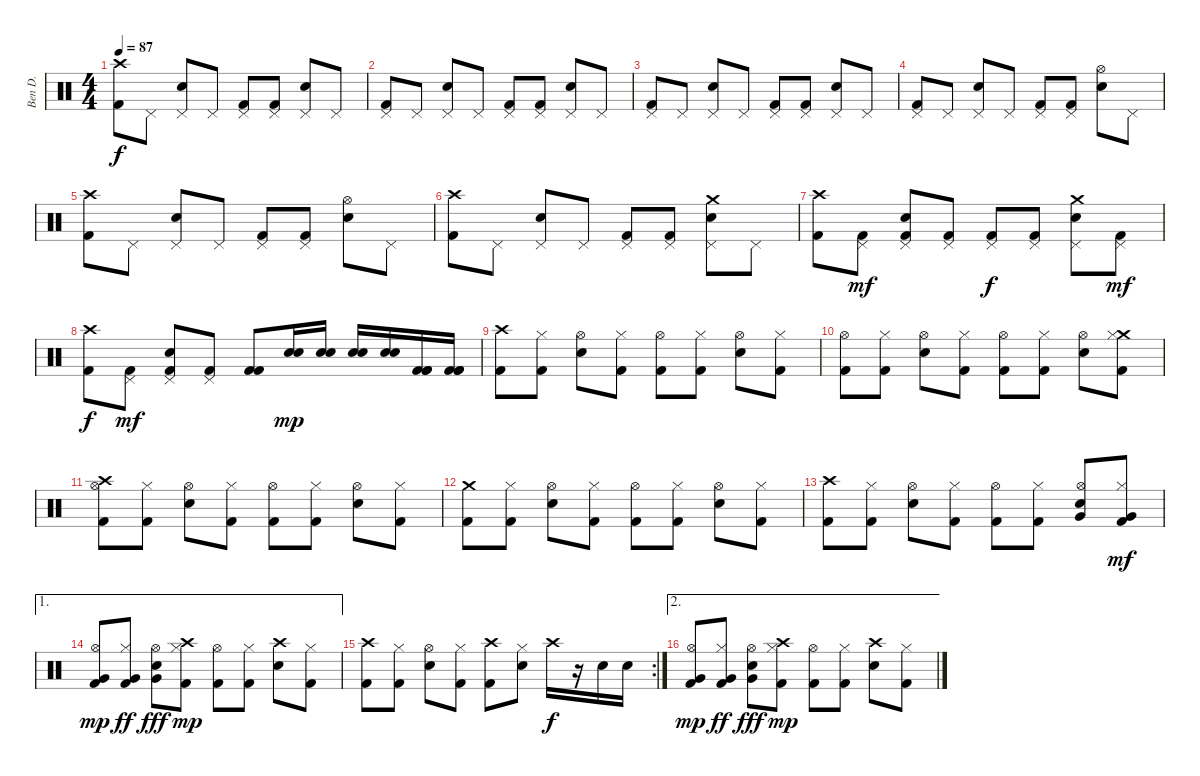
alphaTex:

\track ("Ben D." "Ben D.") {instrument percussion}
\staff {score}
\articulation defaults
\ts (4 4)
\tempo 87
\clef neutral
\ks c
("Crash high (hit)" "Kick (hit) 2").8{dy f} "Pedal Hi-Hat (hit)".8 ("Pedal Hi-Hat (hit)" "Electric Snare (hit)").8 "Pedal Hi-Hat (hit)".8 ("Pedal Hi-Hat (hit)" "Kick (hit) 2").8 ("Pedal Hi-Hat (hit)" "Kick (hit) 2").8 ("Pedal Hi-Hat (hit)" "Electric Snare (hit)").8 "Pedal Hi-Hat (hit)".8 |
("Pedal Hi-Hat (hit)" "Kick (hit) 2").8 "Pedal Hi-Hat (hit)".8 ("Pedal Hi-Hat (hit)" "Electric Snare (hit)").8 "Pedal Hi-Hat (hit)".8 ("Pedal Hi-Hat (hit)" "Kick (hit) 2").8 ("Pedal Hi-Hat (hit)" "Kick (hit) 2").8 ("Pedal Hi-Hat (hit)" "Electric Snare (hit)").8 "Pedal Hi-Hat (hit)".8 |
("Pedal Hi-Hat (hit)" "Kick (hit) 2").8 "Pedal Hi-Hat (hit)".8 ("Pedal Hi-Hat (hit)" "Electric Snare (hit)").8 "Pedal Hi-Hat (hit)".8 ("Pedal Hi-Hat (hit)" "Kick (hit) 2").8 ("Pedal Hi-Hat (hit)" "Kick (hit) 2").8 ("Pedal Hi-Hat (hit)" "Electric Snare (hit)").8 "Pedal Hi-Hat (hit)".8 |
("Pedal Hi-Hat (hit)" "Kick (hit) 2").8 "Pedal Hi-Hat (hit)".8 ("Pedal Hi-Hat (hit)" "Electric Snare (hit)").8 "Pedal Hi-Hat (hit)".8 ("Pedal Hi-Hat (hit)" "Kick (hit) 2").8 ("Pedal Hi-Hat (hit)" "Kick (hit) 2").8 ("Hi-Hat (open)" "Electric Snare (hit)").8 "Pedal Hi-Hat (hit)".8 |
("Crash high (hit)" "Kick (hit) 2").8 "Pedal Hi-Hat (hit)".8 ("Pedal Hi-Hat (hit)" "Electric Snare (hit)").8 "Pedal Hi-Hat (hit)".8 ("Pedal Hi-Hat (hit)" "Kick (hit) 2").8 ("Pedal Hi-Hat (hit)" "Kick (hit) 2").8 ("Hi-Hat (open)" "Electric Snare (hit)").8 "Pedal Hi-Hat (hit)".8 |
("Crash high (hit)" "Kick (hit) 2").8 "Pedal Hi-Hat (hit)".8 ("Pedal Hi-Hat (hit)" "Electric Snare (hit)").8 "Pedal Hi-Hat (hit)".8 ("Pedal Hi-Hat (hit)" "Kick (hit) 2").8 ("Pedal Hi-Hat (hit)" "Kick (hit) 2").8 ("Crash medium (hit)" "Pedal Hi-Hat (hit)" "Electric Snare (hit)").8 "Pedal Hi-Hat (hit)".8 |
("Crash high (hit)" "Kick (hit) 2").8 ("Pedal Hi-Hat (hit)" "Kick (hit) 2").8{dy mf} ("Pedal Hi-Hat (hit)" "Kick (hit) 2" "Electric Snare (hit)").8 ("Pedal Hi-Hat (hit)" "Kick (hit) 2").8 ("Pedal Hi-Hat (hit)" "Kick (hit) 2").8{dy f} ("Pedal Hi-Hat (hit)" "Kick (hit) 2").8 ("Crash medium (hit)" "Pedal Hi-Hat (hit)" "Electric Snare (hit)").8 ("Pedal Hi-Hat (hit)" "Kick (hit) 2").8{dy mf} |
("Crash high (hit)" "Kick (hit) 2").8{dy f} ("Pedal Hi-Hat (hit)" "Kick (hit) 2").8{dy mf} ("Pedal Hi-Hat (hit)" "Kick (hit) 2" "Electric Snare (hit)").8 ("Pedal Hi-Hat (hit)" "Kick (hit) 2").8 ("Kick (hit) 2" "Kick (hit) 2").8 ("Electric Snare (hit)" "Electric Snare (hit)").16{dy mp} ("Electric Snare (hit)" "Electric Snare (hit)").16 ("Snare (hit) 2" "Snare (hit) 2").16 ("Snare (hit) 2" "Snare (hit) 2").16 ("Kick (hit) 2" "Kick (hit) 2" "Kick (hit) 2").16 ("Kick (hit) 2" "Kick (hit) 2" "Kick (hit) 2").16 |
("Crash high (hit)" "Kick (hit) 2").8 ("Hi-Hat (closed)" "Kick (hit) 2").8 ("Hi-Hat (open)" "Electric Snare (hit)").8 ("Hi-Hat (closed)" "Kick (hit) 2").8 ("Hi-Hat (open)" "Kick (hit) 2").8 ("Hi-Hat (closed)" "Kick (hit) 2").8 ("Hi-Hat (open)" "Electric Snare (hit)").8 ("Hi-Hat (closed)" "Kick (hit) 2").8 |
("Hi-Hat (open)" "Kick (hit) 2").8 ("Hi-Hat (closed)" "Kick (hit) 2").8 ("Hi-Hat (open)" "Electric Snare (hit)").8 ("Hi-Hat (closed)" "Kick (hit) 2").8 ("Hi-Hat (open)" "Kick (hit) 2").8 ("Hi-Hat (closed)" "Kick (hit) 2").8 ("Hi-Hat (open)" "Electric Snare (hit)").8 ("Crash medium (hit)" "Hi-Hat (closed)" "Kick (hit) 2").8 |
("Crash high (hit)" "Hi-Hat (open)" "Kick (hit) 2").8 ("Hi-Hat (closed)" "Kick (hit) 2").8 ("Hi-Hat (open)" "Electric Snare (hit)").8 ("Hi-Hat (closed)" "Kick (hit) 2").8 ("Hi-Hat (open)" "Kick (hit) 2").8 ("Hi-Hat (closed)" "Kick (hit) 2").8 ("Hi-Hat (open)" "Electric Snare (hit)").8 ("Hi-Hat (closed)" "Kick (hit) 2").8 |
("Crash medium (hit)" "Kick (hit) 2").8 ("Hi-Hat (closed)" "Kick (hit) 2").8 ("Hi-Hat (open)" "Electric Snare (hit)").8 ("Hi-Hat (closed)" "Kick (hit) 2").8 ("Hi-Hat (open)" "Kick (hit) 2").8 ("Hi-Hat (closed)" "Kick (hit) 2").8 ("Hi-Hat (open)" "Electric Snare (hit)").8 ("Hi-Hat (closed)" "Kick (hit) 2").8 |
("Crash high (hit)" "Kick (hit) 2").8 ("Hi-Hat (closed)" "Kick (hit) 2").8 ("Hi-Hat (open)" "Electric Snare (hit)").8 ("Hi-Hat (closed)" "Kick (hit) 2").8 ("Hi-Hat (open)" "Kick (hit) 2").8 ("Hi-Hat (closed)" "Kick (hit) 2").8 ("Hi-Hat (open)" "Electric Snare (hit)" "Very Low Tom (hit)").8 ("Hi-Hat (closed)" "Kick (hit) 2" "Very Low Tom (hit)").8{dy mf} |
\ae 1
("Hi-Hat (open)" "Kick (hit) 2" "Very Low Tom (hit)").8{dy mp} ("Hi-Hat (closed)" "Kick (hit) 2" "Very Low Tom (hit)").8{dy ff} ("Hi-Hat (open)" "Electric Snare (hit)" "Very Low Tom (hit)").8{dy fff} ("Crash high (hit)" "Hi-Hat (closed)" "Kick (hit) 2").8{dy mp} ("Hi-Hat (open)" "Kick (hit) 2").8 ("Hi-Hat (closed)" "Kick (hit) 2").8 ("Crash high (hit)" "Electric Snare (hit)").8 ("Hi-Hat (closed)" "Kick (hit) 2").8 |
\rc 2
("Crash high (hit)" "Kick (hit) 2").8 ("Hi-Hat (closed)" "Kick (hit) 2").8 ("Hi-Hat (open)" "Electric Snare (hit)").8 ("Hi-Hat (closed)" "Kick (hit) 2").8 ("Crash high (hit)" "Kick (hit) 2").8 ("Hi-Hat (closed)" "Electric Snare (hit)").8 "Crash high (hit)".16{dy f} r.16 "Electric Snare (hit)".16 "Electric Snare (hit)".16 |
\ae 2
("Hi-Hat (open)" "Kick (hit) 2" "Very Low Tom (hit)").8{dy mp} ("Hi-Hat (closed)" "Kick (hit) 2" "Very Low Tom (hit)").8{dy ff} ("Hi-Hat (open)" "Electric Snare (hit)" "Very Low Tom (hit)").8{dy fff} ("Crash high (hit)" "Hi-Hat (closed)" "Kick (hit) 2").8{dy mp} ("Hi-Hat (open)" "Kick (hit) 2").8 ("Hi-Hat (closed)" "Kick (hit) 2").8 ("Crash high (hit)" "Electric Snare (hit)").8 ("Hi-Hat (closed)" "Kick (hit) 2").8
